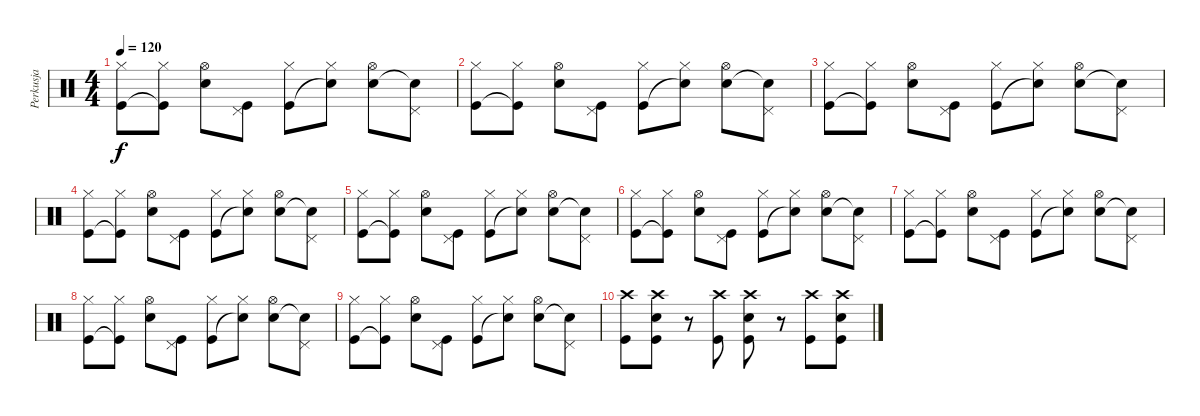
\track ("Perkusja" "Perkusja") {instrument percussion}
\staff {score}
\articulation defaults
\ts (4 4)
\tempo 120
\clef neutral
\ks c
("Kick (hit)" "Hi-Hat (closed)").8{dy f} ("Kick (hit)"{t} "Hi-Hat (closed)").8 ("Snare (hit) 2" "Hi-Hat (open)").8 ("Kick (hit)" "Pedal Hi-Hat (hit)").8 ("Kick (hit)" "Hi-Hat (closed)").8 ("Snare (hit)"{t} "Hi-Hat (closed)").8 ("Snare (hit) 2" "Hi-Hat (open)").8 ("Snare (hit)"{t} "Pedal Hi-Hat (hit)").8 |
("Kick (hit)" "Hi-Hat (closed)").8 ("Kick (hit)"{t} "Hi-Hat (closed)").8 ("Snare (hit) 2" "Hi-Hat (open)").8 ("Kick (hit)" "Pedal Hi-Hat (hit)").8 ("Kick (hit)" "Hi-Hat (closed)").8 ("Snare (hit)"{t} "Hi-Hat (closed)").8 ("Snare (hit) 2" "Hi-Hat (open)").8 ("Snare (hit)"{t} "Pedal Hi-Hat (hit)").8 |
("Kick (hit)" "Hi-Hat (closed)").8 ("Kick (hit)"{t} "Hi-Hat (closed)").8 ("Snare (hit) 2" "Hi-Hat (open)").8 ("Kick (hit)" "Pedal Hi-Hat (hit)").8 ("Kick (hit)" "Hi-Hat (closed)").8 ("Snare (hit)"{t} "Hi-Hat (closed)").8 ("Snare (hit) 2" "Hi-Hat (open)").8 ("Snare (hit)"{t} "Pedal Hi-Hat (hit)").8 |
("Kick (hit)" "Hi-Hat (closed)").8 ("Kick (hit)"{t} "Hi-Hat (closed)").8 ("Snare (hit) 2" "Hi-Hat (open)").8 ("Kick (hit)" "Pedal Hi-Hat (hit)").8 ("Kick (hit)" "Hi-Hat (closed)").8 ("Snare (hit)"{t} "Hi-Hat (closed)").8 ("Snare (hit) 2" "Hi-Hat (open)").8 ("Snare (hit)"{t} "Pedal Hi-Hat (hit)").8 |
("Kick (hit)" "Hi-Hat (closed)").8 ("Kick (hit)"{t} "Hi-Hat (closed)").8 ("Snare (hit) 2" "Hi-Hat (open)").8 ("Kick (hit)" "Pedal Hi-Hat (hit)").8 ("Kick (hit)" "Hi-Hat (closed)").8 ("Snare (hit)"{t} "Hi-Hat (closed)").8 ("Snare (hit) 2" "Hi-Hat (open)").8 ("Snare (hit)"{t} "Pedal Hi-Hat (hit)").8 |
("Kick (hit)" "Hi-Hat (closed)").8 ("Kick (hit)"{t} "Hi-Hat (closed)").8 ("Snare (hit) 2" "Hi-Hat (open)").8 ("Kick (hit)" "Pedal Hi-Hat (hit)").8 ("Kick (hit)" "Hi-Hat (closed)").8 ("Snare (hit)"{t} "Hi-Hat (closed)").8 ("Snare (hit) 2" "Hi-Hat (open)").8 ("Snare (hit)"{t} "Pedal Hi-Hat (hit)").8 |
("Kick (hit)" "Hi-Hat (closed)").8 ("Kick (hit)"{t} "Hi-Hat (closed)").8 ("Snare (hit) 2" "Hi-Hat (open)").8 ("Kick (hit)" "Pedal Hi-Hat (hit)").8 ("Kick (hit)" "Hi-Hat (closed)").8 ("Snare (hit)"{t} "Hi-Hat (closed)").8 ("Snare (hit) 2" "Hi-Hat (open)").8 ("Snare (hit)"{t} "Pedal Hi-Hat (hit)").8 |
("Kick (hit)" "Hi-Hat (closed)").8 ("Kick (hit)"{t} "Hi-Hat (closed)").8 ("Snare (hit) 2" "Hi-Hat (open)").8 ("Kick (hit)" "Pedal Hi-Hat (hit)").8 ("Kick (hit)" "Hi-Hat (closed)").8 ("Snare (hit)"{t} "Hi-Hat (closed)").8 ("Snare (hit) 2" "Hi-Hat (open)").8 ("Snare (hit)"{t} "Pedal Hi-Hat (hit)").8 |
("Kick (hit)" "Hi-Hat (closed)").8 ("Kick (hit)"{t} "Hi-Hat (closed)").8 ("Snare (hit) 2" "Hi-Hat (open)").8 ("Kick (hit)" "Pedal Hi-Hat (hit)").8 ("Kick (hit)" "Hi-Hat (closed)").8 ("Snare (hit)"{t} "Hi-Hat (closed)").8 ("Snare (hit) 2" "Hi-Hat (open)").8 ("Snare (hit)"{t} "Pedal Hi-Hat (hit)").8 |
("Kick (hit)" "Crash high (hit)").8 ("Snare (hit) 2" "Kick (hit)" "Crash high (hit)").8 r.8 ("Kick (hit)" "Crash high (hit)").8 ("Snare (hit) 2" "Kick (hit)" "Crash high (hit)").8 r.8 ("Kick (hit)" "Crash high (hit)").8 ("Snare (hit) 2" "Kick (hit)" "Crash high (hit)").8
